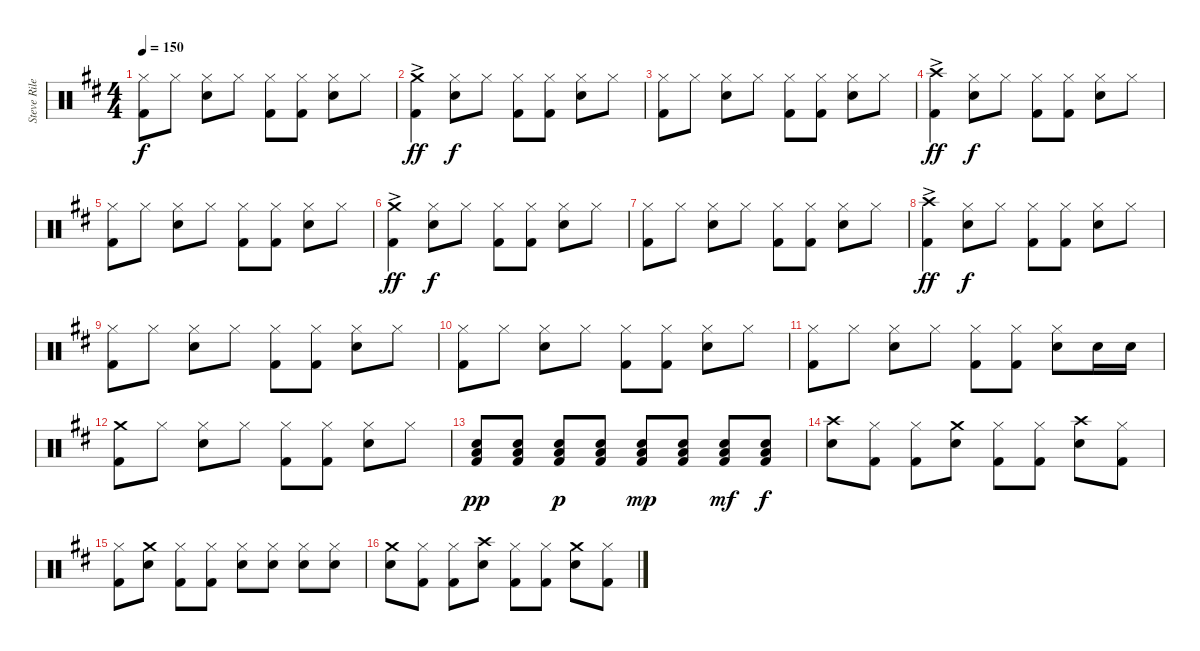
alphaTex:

\track ("Steve Riley" "Steve Rile") {instrument percussion}
\staff {score}
\articulation defaults
\ts (4 4)
\tempo 150
\clef neutral
\ks d
("Hi-Hat (closed)" "Kick (hit) 2").8{dy f} "Hi-Hat (closed)".8 ("Hi-Hat (closed)" "Electric Snare (hit)").8 "Hi-Hat (closed)".8 ("Hi-Hat (closed)" "Kick (hit) 2").8 ("Hi-Hat (closed)" "Kick (hit) 2").8 ("Hi-Hat (closed)" "Electric Snare (hit)").8 "Hi-Hat (closed)".8 |
("Crash medium (hit)"{ac} "Kick (hit) 2").4{dy ff} ("Hi-Hat (closed)" "Electric Snare (hit)").8{dy f} "Hi-Hat (closed)".8 ("Hi-Hat (closed)" "Kick (hit) 2").8 ("Hi-Hat (closed)" "Kick (hit) 2").8 ("Hi-Hat (closed)" "Electric Snare (hit)").8 "Hi-Hat (closed)".8 |
("Hi-Hat (closed)" "Kick (hit) 2").8 "Hi-Hat (closed)".8 ("Hi-Hat (closed)" "Electric Snare (hit)").8 "Hi-Hat (closed)".8 ("Hi-Hat (closed)" "Kick (hit) 2").8 ("Hi-Hat (closed)" "Kick (hit) 2").8 ("Hi-Hat (closed)" "Electric Snare (hit)").8 "Hi-Hat (closed)".8 |
("Crash high (hit)"{ac} "Kick (hit) 2").4{dy ff} ("Hi-Hat (closed)" "Electric Snare (hit)").8{dy f} "Hi-Hat (closed)".8 ("Hi-Hat (closed)" "Kick (hit) 2").8 ("Hi-Hat (closed)" "Kick (hit) 2").8 ("Hi-Hat (closed)" "Electric Snare (hit)").8 "Hi-Hat (closed)".8 |
("Hi-Hat (closed)" "Kick (hit) 2").8 "Hi-Hat (closed)".8 ("Hi-Hat (closed)" "Electric Snare (hit)").8 "Hi-Hat (closed)".8 ("Hi-Hat (closed)" "Kick (hit) 2").8 ("Hi-Hat (closed)" "Kick (hit) 2").8 ("Hi-Hat (closed)" "Electric Snare (hit)").8 "Hi-Hat (closed)".8 |
("Crash medium (hit)"{ac} "Kick (hit) 2").4{dy ff} ("Hi-Hat (closed)" "Electric Snare (hit)").8{dy f} "Hi-Hat (closed)".8 ("Hi-Hat (closed)" "Kick (hit) 2").8 ("Hi-Hat (closed)" "Kick (hit) 2").8 ("Hi-Hat (closed)" "Electric Snare (hit)").8 "Hi-Hat (closed)".8 |
("Hi-Hat (closed)" "Kick (hit) 2").8 "Hi-Hat (closed)".8 ("Hi-Hat (closed)" "Electric Snare (hit)").8 "Hi-Hat (closed)".8 ("Hi-Hat (closed)" "Kick (hit) 2").8 ("Hi-Hat (closed)" "Kick (hit) 2").8 ("Hi-Hat (closed)" "Electric Snare (hit)").8 "Hi-Hat (closed)".8 |
("Crash high (hit)"{ac} "Kick (hit) 2").4{dy ff} ("Hi-Hat (closed)" "Electric Snare (hit)").8{dy f} "Hi-Hat (closed)".8 ("Hi-Hat (closed)" "Kick (hit) 2").8 ("Hi-Hat (closed)" "Kick (hit) 2").8 ("Hi-Hat (closed)" "Electric Snare (hit)").8 "Hi-Hat (closed)".8 |
("Hi-Hat (closed)" "Kick (hit) 2").8 "Hi-Hat (closed)".8 ("Hi-Hat (closed)" "Electric Snare (hit)").8 "Hi-Hat (closed)".8 ("Hi-Hat (closed)" "Kick (hit) 2").8 ("Hi-Hat (closed)" "Kick (hit) 2").8 ("Hi-Hat (closed)" "Electric Snare (hit)").8 "Hi-Hat (closed)".8 |
("Hi-Hat (closed)" "Kick (hit) 2").8 "Hi-Hat (closed)".8 ("Hi-Hat (closed)" "Electric Snare (hit)").8 "Hi-Hat (closed)".8 ("Hi-Hat (closed)" "Kick (hit) 2").8 ("Hi-Hat (closed)" "Kick (hit) 2").8 ("Hi-Hat (closed)" "Electric Snare (hit)").8 "Hi-Hat (closed)".8 |
("Hi-Hat (closed)" "Kick (hit) 2").8 "Hi-Hat (closed)".8 ("Hi-Hat (closed)" "Electric Snare (hit)").8 "Hi-Hat (closed)".8 ("Hi-Hat (closed)" "Kick (hit) 2").8 ("Hi-Hat (closed)" "Kick (hit) 2").8 ("Hi-Hat (closed)" "Electric Snare (hit)").8 "Electric Snare (hit)".16 "Electric Snare (hit)".16 |
("Crash medium (hit)" "Kick (hit) 2").8 "Hi-Hat (closed)".8 ("Hi-Hat (closed)" "Electric Snare (hit)").8 "Hi-Hat (closed)".8 ("Hi-Hat (closed)" "Kick (hit) 2").8 ("Hi-Hat (closed)" "Kick (hit) 2").8 ("Hi-Hat (closed)" "Electric Snare (hit)").8 "Hi-Hat (closed)".8 |
("Electric Snare (hit)" "Low Tom (hit)" "Kick (hit) 2").8{dy pp} ("Electric Snare (hit)" "Low Tom (hit)" "Kick (hit) 2").8 ("Electric Snare (hit)" "Low Tom (hit)" "Kick (hit) 2").8{dy p} ("Electric Snare (hit)" "Low Tom (hit)" "Kick (hit) 2").8 ("Electric Snare (hit)" "Low Tom (hit)" "Kick (hit) 2").8{dy mp} ("Electric Snare (hit)" "Low Tom (hit)" "Kick (hit) 2").8 ("Electric Snare (hit)" "Low Tom (hit)" "Kick (hit) 2").8{dy mf} ("Electric Snare (hit)" "Low Tom (hit)" "Kick (hit) 2").8{dy f} |
("Crash high (hit)" "Electric Snare (hit)").8 ("Hi-Hat (closed)" "Kick (hit) 2").8 ("Hi-Hat (closed)" "Kick (hit) 2").8 ("Crash medium (hit)" "Electric Snare (hit)").8 ("Hi-Hat (closed)" "Kick (hit) 2").8 ("Hi-Hat (closed)" "Kick (hit) 2").8 ("Crash high (hit)" "Electric Snare (hit)").8 ("Hi-Hat (closed)" "Kick (hit) 2").8 |
("Hi-Hat (closed)" "Kick (hit) 2").8 ("Crash medium (hit)" "Electric Snare (hit)").8 ("Hi-Hat (closed)" "Kick (hit) 2").8 ("Hi-Hat (closed)" "Kick (hit) 2").8 ("Hi-Hat (closed)" "Electric Snare (hit)").8 ("Hi-Hat (closed)" "Electric Snare (hit)").8 ("Hi-Hat (closed)" "Electric Snare (hit)").8 ("Hi-Hat (closed)" "Electric Snare (hit)").8 |
("Crash medium (hit)" "Electric Snare (hit)").8 ("Hi-Hat (closed)" "Kick (hit) 2").8 ("Hi-Hat (closed)" "Kick (hit) 2").8 ("Crash high (hit)" "Electric Snare (hit)").8 ("Hi-Hat (closed)" "Kick (hit) 2").8 ("Hi-Hat (closed)" "Kick (hit) 2").8 ("Crash medium (hit)" "Electric Snare (hit)").8 ("Hi-Hat (closed)" "Kick (hit) 2").8
